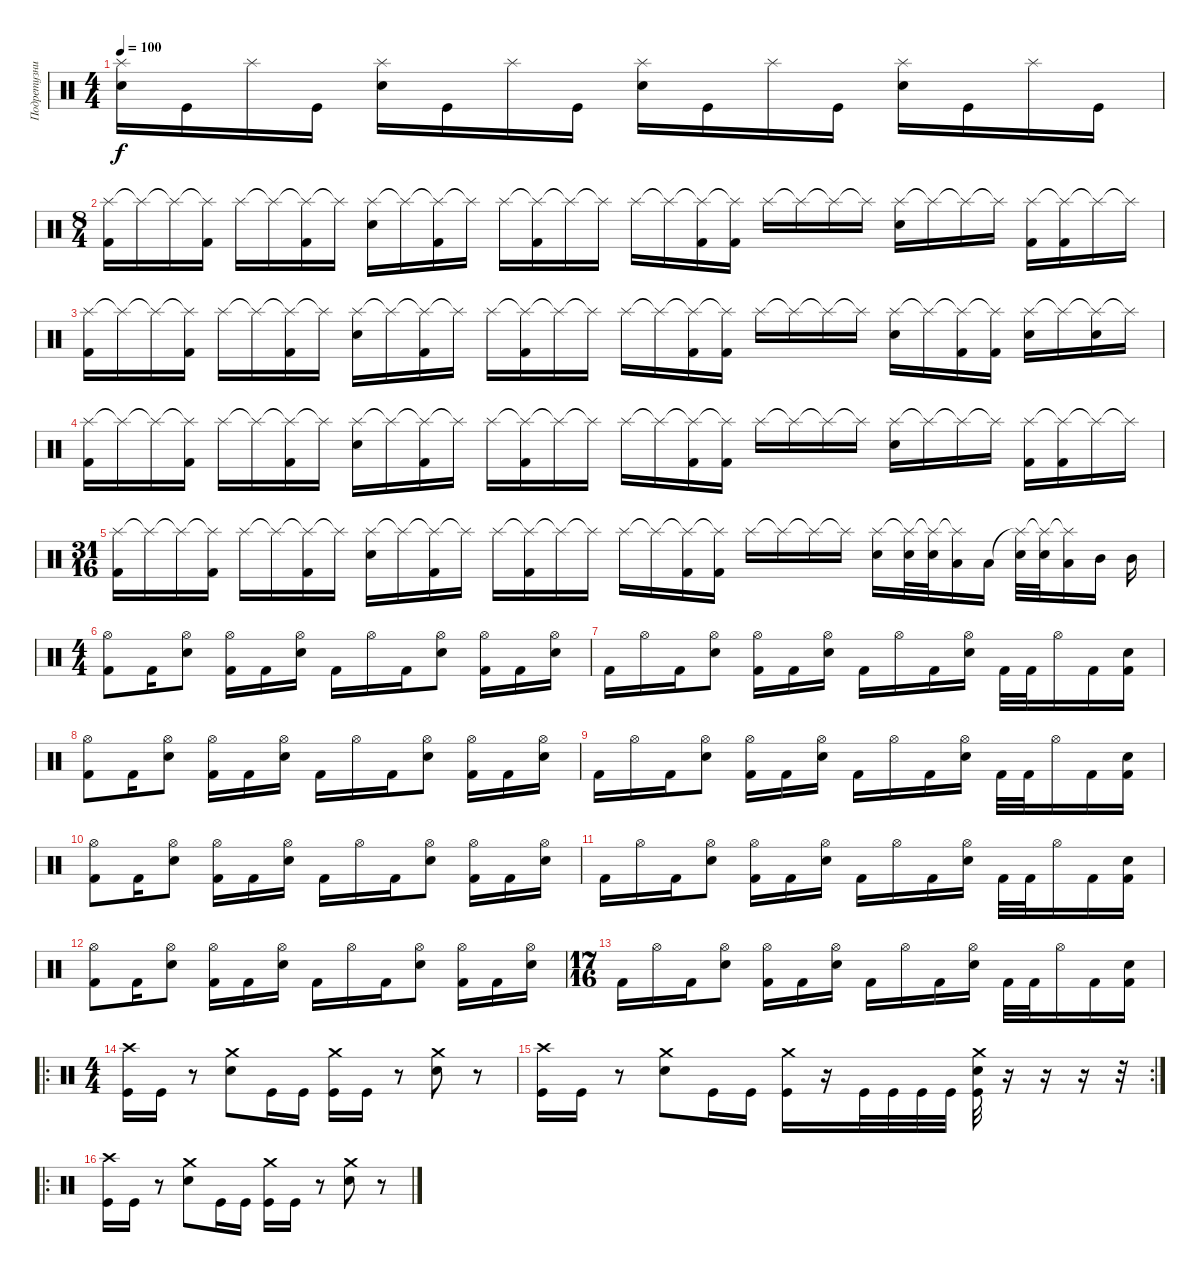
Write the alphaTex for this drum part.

\track ("Подретузник" "Подретузни") {instrument percussion}
\staff {score}
\articulation defaults
\ts (4 4)
\tempo 100
\clef neutral
\ks c
("Splash (hit)" "Electric Snare (hit)").16{dy f} "Kick (hit)".16 "Splash (hit)".16 "Kick (hit)".16 ("Splash (hit)" "Electric Snare (hit)").16 "Kick (hit)".16 "Splash (hit)".16 "Kick (hit)".16 ("Splash (hit)" "Electric Snare (hit)").16 "Kick (hit)".16 "Splash (hit)".16 "Kick (hit)".16 ("Splash (hit)" "Electric Snare (hit)").16 "Kick (hit)".16 "Splash (hit)".16 "Kick (hit)".16 |
\ts (8 4)
("Splash (hit)" "Kick (hit) 2").16 "Splash (hit)"{t}.16 "Splash (hit)"{t}.16 ("Splash (hit)"{t} "Kick (hit) 2").16 "Splash (hit)".16 "Splash (hit)"{t}.16 ("Splash (hit)"{t} "Kick (hit) 2").16 "Splash (hit)"{t}.16 ("Splash (hit)" "Electric Snare (hit)").16 "Splash (hit)"{t}.16 ("Splash (hit)"{t} "Kick (hit) 2").16 "Splash (hit)"{t}.16 "Splash (hit)".16 ("Splash (hit)"{t} "Kick (hit) 2").16 "Splash (hit)"{t}.16 "Splash (hit)"{t}.16 "Splash (hit)".16 "Splash (hit)"{t}.16 ("Splash (hit)"{t} "Kick (hit) 2").16 ("Splash (hit)"{t} "Kick (hit) 2").16 "Splash (hit)".16 "Splash (hit)"{t}.16 "Splash (hit)"{t}.16 "Splash (hit)"{t}.16 ("Splash (hit)" "Electric Snare (hit)").16 "Splash (hit)"{t}.16 "Splash (hit)"{t}.16 "Splash (hit)"{t}.16 ("Splash (hit)" "Kick (hit) 2").16 ("Splash (hit)"{t} "Kick (hit) 2").16 "Splash (hit)"{t}.16 "Splash (hit)"{t}.16 |
("Splash (hit)" "Kick (hit) 2").16 "Splash (hit)"{t}.16 "Splash (hit)"{t}.16 ("Splash (hit)"{t} "Kick (hit) 2").16 "Splash (hit)".16 "Splash (hit)"{t}.16 ("Splash (hit)"{t} "Kick (hit) 2").16 "Splash (hit)"{t}.16 ("Splash (hit)" "Electric Snare (hit)").16 "Splash (hit)"{t}.16 ("Splash (hit)"{t} "Kick (hit) 2").16 "Splash (hit)"{t}.16 "Splash (hit)".16 ("Splash (hit)"{t} "Kick (hit) 2").16 "Splash (hit)"{t}.16 "Splash (hit)"{t}.16 "Splash (hit)".16 "Splash (hit)"{t}.16 ("Splash (hit)"{t} "Kick (hit) 2").16 ("Splash (hit)"{t} "Kick (hit) 2").16 "Splash (hit)".16 "Splash (hit)"{t}.16 "Splash (hit)"{t}.16 "Splash (hit)"{t}.16 ("Splash (hit)" "Electric Snare (hit)").16 "Splash (hit)"{t}.16 ("Splash (hit)"{t} "Kick (hit) 2").16 ("Splash (hit)"{t} "Kick (hit) 2").16 ("Splash (hit)" "Electric Snare (hit)").16 "Splash (hit)"{t}.16 ("Splash (hit)"{t} "Electric Snare (hit)").16 "Splash (hit)"{t}.16 |
("Splash (hit)" "Kick (hit) 2").16 "Splash (hit)"{t}.16 "Splash (hit)"{t}.16 ("Splash (hit)"{t} "Kick (hit) 2").16 "Splash (hit)".16 "Splash (hit)"{t}.16 ("Splash (hit)"{t} "Kick (hit) 2").16 "Splash (hit)"{t}.16 ("Splash (hit)" "Electric Snare (hit)").16 "Splash (hit)"{t}.16 ("Splash (hit)"{t} "Kick (hit) 2").16 "Splash (hit)"{t}.16 "Splash (hit)".16 ("Splash (hit)"{t} "Kick (hit) 2").16 "Splash (hit)"{t}.16 "Splash (hit)"{t}.16 "Splash (hit)".16 "Splash (hit)"{t}.16 ("Splash (hit)"{t} "Kick (hit) 2").16 ("Splash (hit)"{t} "Kick (hit) 2").16 "Splash (hit)".16 "Splash (hit)"{t}.16 "Splash (hit)"{t}.16 "Splash (hit)"{t}.16 ("Splash (hit)" "Electric Snare (hit)").16 "Splash (hit)"{t}.16 "Splash (hit)"{t}.16 "Splash (hit)"{t}.16 ("Splash (hit)" "Kick (hit) 2").16 ("Splash (hit)"{t} "Kick (hit) 2").16 "Splash (hit)"{t}.16 "Splash (hit)"{t}.16 |
\ts (31 16)
("Splash (hit)" "Kick (hit) 2").16 "Splash (hit)"{t}.16 "Splash (hit)"{t}.16 ("Splash (hit)"{t} "Kick (hit) 2").16 "Splash (hit)".16 "Splash (hit)"{t}.16 ("Splash (hit)"{t} "Kick (hit) 2").16 "Splash (hit)"{t}.16 ("Splash (hit)" "Electric Snare (hit)").16 "Splash (hit)"{t}.16 ("Splash (hit)"{t} "Kick (hit) 2").16 "Splash (hit)"{t}.16 "Splash (hit)".16 ("Splash (hit)"{t} "Kick (hit) 2").16 "Splash (hit)"{t}.16 "Splash (hit)"{t}.16 "Splash (hit)".16 "Splash (hit)"{t}.16 ("Splash (hit)"{t} "Kick (hit) 2").16 ("Splash (hit)"{t} "Kick (hit) 2").16 "Splash (hit)".16 "Splash (hit)"{t}.16 "Splash (hit)"{t}.16 "Splash (hit)"{t}.16 ("Splash (hit)" "Electric Snare (hit)").16 ("Splash (hit)"{t} "Electric Snare (hit)").32 ("Splash (hit)"{t} "Electric Snare (hit)").32 ("Splash (hit)"{t} "Low Tom (hit)").16 "Low Tom (hit)".16 ("Splash (hit)"{t} "Electric Snare (hit)").32 ("Splash (hit)"{t} "Electric Snare (hit)").32 ("Splash (hit)"{t} "Low Tom (hit)").16 "Mid Tom (hit)".16 "Mid Tom (hit)".16 |
\ts (4 4)
("Kick (hit) 2" "Hi-Hat (open)").8 "Kick (hit) 2".16 ("Electric Snare (hit)" "Hi-Hat (open)").8 ("Kick (hit) 2" "Hi-Hat (open)").16 "Kick (hit) 2".16 ("Electric Snare (hit)" "Hi-Hat (open)").16 "Kick (hit) 2".16 "Hi-Hat (open)".16 "Kick (hit) 2".16 ("Electric Snare (hit)" "Hi-Hat (open)").8 ("Kick (hit) 2" "Hi-Hat (open)").16 "Kick (hit) 2".16 ("Electric Snare (hit)" "Hi-Hat (open)").16 |
"Kick (hit) 2".16 "Hi-Hat (open)".16 "Kick (hit) 2".16 ("Electric Snare (hit)" "Hi-Hat (open)").8 ("Kick (hit) 2" "Hi-Hat (open)").16 "Kick (hit) 2".16 ("Electric Snare (hit)" "Hi-Hat (open)").16 "Kick (hit) 2".16 "Hi-Hat (open)".16 "Kick (hit) 2".16 ("Electric Snare (hit)" "Hi-Hat (open)").16 "Kick (hit) 2".32 "Kick (hit) 2".32 "Hi-Hat (open)".16 "Kick (hit) 2".16 ("Electric Snare (hit)" "Kick (hit) 2").16 |
("Kick (hit) 2" "Hi-Hat (open)").8 "Kick (hit) 2".16 ("Electric Snare (hit)" "Hi-Hat (open)").8 ("Kick (hit) 2" "Hi-Hat (open)").16 "Kick (hit) 2".16 ("Electric Snare (hit)" "Hi-Hat (open)").16 "Kick (hit) 2".16 "Hi-Hat (open)".16 "Kick (hit) 2".16 ("Electric Snare (hit)" "Hi-Hat (open)").8 ("Kick (hit) 2" "Hi-Hat (open)").16 "Kick (hit) 2".16 ("Electric Snare (hit)" "Hi-Hat (open)").16 |
"Kick (hit) 2".16 "Hi-Hat (open)".16 "Kick (hit) 2".16 ("Electric Snare (hit)" "Hi-Hat (open)").8 ("Kick (hit) 2" "Hi-Hat (open)").16 "Kick (hit) 2".16 ("Electric Snare (hit)" "Hi-Hat (open)").16 "Kick (hit) 2".16 "Hi-Hat (open)".16 "Kick (hit) 2".16 ("Electric Snare (hit)" "Hi-Hat (open)").16 "Kick (hit) 2".32 "Kick (hit) 2".32 "Hi-Hat (open)".16 "Kick (hit) 2".16 ("Electric Snare (hit)" "Kick (hit) 2").16 |
("Kick (hit) 2" "Hi-Hat (open)").8 "Kick (hit) 2".16 ("Electric Snare (hit)" "Hi-Hat (open)").8 ("Kick (hit) 2" "Hi-Hat (open)").16 "Kick (hit) 2".16 ("Electric Snare (hit)" "Hi-Hat (open)").16 "Kick (hit) 2".16 "Hi-Hat (open)".16 "Kick (hit) 2".16 ("Electric Snare (hit)" "Hi-Hat (open)").8 ("Kick (hit) 2" "Hi-Hat (open)").16 "Kick (hit) 2".16 ("Electric Snare (hit)" "Hi-Hat (open)").16 |
"Kick (hit) 2".16 "Hi-Hat (open)".16 "Kick (hit) 2".16 ("Electric Snare (hit)" "Hi-Hat (open)").8 ("Kick (hit) 2" "Hi-Hat (open)").16 "Kick (hit) 2".16 ("Electric Snare (hit)" "Hi-Hat (open)").16 "Kick (hit) 2".16 "Hi-Hat (open)".16 "Kick (hit) 2".16 ("Electric Snare (hit)" "Hi-Hat (open)").16 "Kick (hit) 2".32 "Kick (hit) 2".32 "Hi-Hat (open)".16 "Kick (hit) 2".16 ("Electric Snare (hit)" "Kick (hit) 2").16 |
("Kick (hit) 2" "Hi-Hat (open)").8 "Kick (hit) 2".16 ("Electric Snare (hit)" "Hi-Hat (open)").8 ("Kick (hit) 2" "Hi-Hat (open)").16 "Kick (hit) 2".16 ("Electric Snare (hit)" "Hi-Hat (open)").16 "Kick (hit) 2".16 "Hi-Hat (open)".16 "Kick (hit) 2".16 ("Electric Snare (hit)" "Hi-Hat (open)").8 ("Kick (hit) 2" "Hi-Hat (open)").16 "Kick (hit) 2".16 ("Electric Snare (hit)" "Hi-Hat (open)").16 |
\ts (17 16)
"Kick (hit) 2".16 "Hi-Hat (open)".16 "Kick (hit) 2".16 ("Electric Snare (hit)" "Hi-Hat (open)").8 ("Kick (hit) 2" "Hi-Hat (open)").16 "Kick (hit) 2".16 ("Electric Snare (hit)" "Hi-Hat (open)").16 "Kick (hit) 2".16 "Hi-Hat (open)".16 "Kick (hit) 2".16 ("Electric Snare (hit)" "Hi-Hat (open)").16 "Kick (hit) 2".32 "Kick (hit) 2".32 "Hi-Hat (open)".16 "Kick (hit) 2".16 ("Electric Snare (hit)" "Kick (hit) 2").16 |
\ro
\ts (4 4)
("Crash high (hit)" "Kick (hit)").16 "Kick (hit)".16 r.8 ("Crash medium (hit)" "Electric Snare (hit)").8 "Kick (hit)".16 "Kick (hit)".16 ("Crash medium (hit)" "Kick (hit)").16 "Kick (hit)".16 r.8 ("Crash medium (hit)" "Electric Snare (hit)").8 r.8 |
\rc 2
("Crash high (hit)" "Kick (hit)").16 "Kick (hit)".16 r.8 ("Crash medium (hit)" "Electric Snare (hit)").8 "Kick (hit)".16 "Kick (hit)".16 ("Crash medium (hit)" "Kick (hit)").16 r.16 "Kick (hit)".32 "Kick (hit)".32 "Kick (hit)".32 "Kick (hit)".32 ("Crash medium (hit)" "Electric Snare (hit)" "Kick (hit)").32 r.16 r.16 r.16 r.32 |
\ro
("Crash high (hit)" "Kick (hit)").16 "Kick (hit)".16 r.8 ("Crash medium (hit)" "Electric Snare (hit)").8 "Kick (hit)".16 "Kick (hit)".16 ("Crash medium (hit)" "Kick (hit)").16 "Kick (hit)".16 r.8 ("Crash medium (hit)" "Electric Snare (hit)").8 r.8
